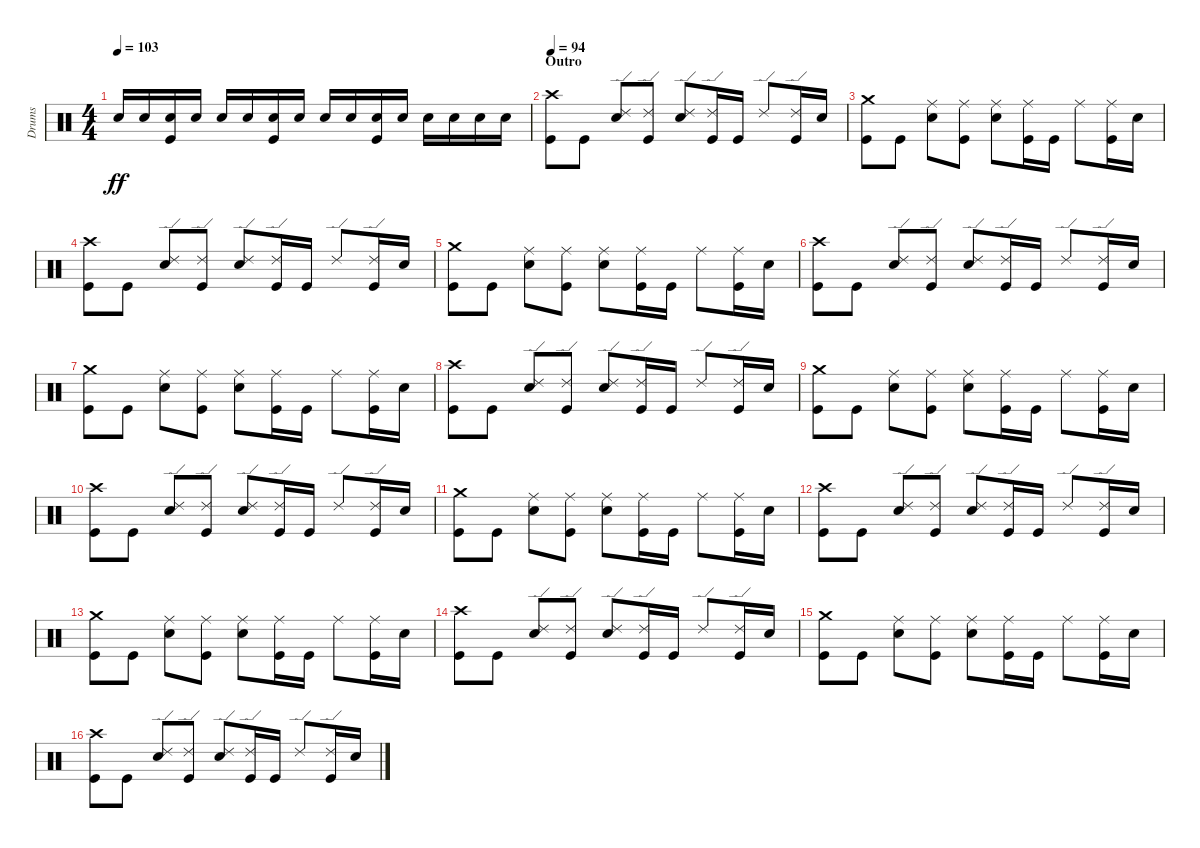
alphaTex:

\track ("Drums" "Drums") {instrument percussion}
\staff {score}
\articulation defaults
\ts (4 4)
\tempo 103
\clef neutral
\ks c "Electric Snare (hit)".16{dy ff} "Electric Snare (hit)".16
("Electric Snare (hit)" "Kick (hit)").16 "Electric Snare (hit)".16 "Electric Snare (hit)".16 "Electric Snare (hit)".16 ("Electric Snare (hit)" "Kick (hit)").16 "Electric Snare (hit)".16 "Electric Snare (hit)".16 "Electric Snare (hit)".16 ("Electric Snare (hit)" "Kick (hit)").16 "Electric Snare (hit)".16 "Electric Snare (hit)".16 "Electric Snare (hit)".16 "Electric Snare (hit)".16 "Electric Snare (hit)".16 |
\section ("" "Outro")
\tempo 94
("Crash high (hit)" "Kick (hit)").8 "Kick (hit)".8 ("Ride (edge) 2" "Electric Snare (hit)").8 ("Ride (edge) 2" "Kick (hit)").8 ("Ride (edge) 2" "Electric Snare (hit)").8 ("Ride (edge) 2" "Kick (hit)").16 "Kick (hit)".16 "Ride (edge) 2".8 ("Ride (edge) 2" "Kick (hit)").16 "Electric Snare (hit)".16 |
("Crash medium (hit)" "Kick (hit)").8 "Kick (hit)".8 ("Ride (middle)" "Electric Snare (hit)").8 ("Ride (middle)" "Kick (hit)").8 ("Ride (middle)" "Electric Snare (hit)").8 ("Ride (middle)" "Kick (hit)").16 "Kick (hit)".16 "Ride (middle)".8 ("Ride (middle)" "Kick (hit)").16 "Electric Snare (hit)".16 |
("Crash high (hit)" "Kick (hit)").8 "Kick (hit)".8 ("Ride (edge) 2" "Electric Snare (hit)").8 ("Ride (edge) 2" "Kick (hit)").8 ("Ride (edge) 2" "Electric Snare (hit)").8 ("Ride (edge) 2" "Kick (hit)").16 "Kick (hit)".16 "Ride (edge) 2".8 ("Ride (edge) 2" "Kick (hit)").16 "Electric Snare (hit)".16 |
("Crash medium (hit)" "Kick (hit)").8 "Kick (hit)".8 ("Ride (middle)" "Electric Snare (hit)").8 ("Ride (middle)" "Kick (hit)").8 ("Ride (middle)" "Electric Snare (hit)").8 ("Ride (middle)" "Kick (hit)").16 "Kick (hit)".16 "Ride (middle)".8 ("Ride (middle)" "Kick (hit)").16 "Electric Snare (hit)".16 |
("Crash high (hit)" "Kick (hit)").8 "Kick (hit)".8 ("Ride (edge) 2" "Electric Snare (hit)").8 ("Ride (edge) 2" "Kick (hit)").8 ("Ride (edge) 2" "Electric Snare (hit)").8 ("Ride (edge) 2" "Kick (hit)").16 "Kick (hit)".16 "Ride (edge) 2".8 ("Ride (edge) 2" "Kick (hit)").16 "Electric Snare (hit)".16 |
("Crash medium (hit)" "Kick (hit)").8 "Kick (hit)".8 ("Ride (middle)" "Electric Snare (hit)").8 ("Ride (middle)" "Kick (hit)").8 ("Ride (middle)" "Electric Snare (hit)").8 ("Ride (middle)" "Kick (hit)").16 "Kick (hit)".16 "Ride (middle)".8 ("Ride (middle)" "Kick (hit)").16 "Electric Snare (hit)".16 |
("Crash high (hit)" "Kick (hit)").8 "Kick (hit)".8 ("Ride (edge) 2" "Electric Snare (hit)").8 ("Ride (edge) 2" "Kick (hit)").8 ("Ride (edge) 2" "Electric Snare (hit)").8 ("Ride (edge) 2" "Kick (hit)").16 "Kick (hit)".16 "Ride (edge) 2".8 ("Ride (edge) 2" "Kick (hit)").16 "Electric Snare (hit)".16 |
("Crash medium (hit)" "Kick (hit)").8 "Kick (hit)".8 ("Ride (middle)" "Electric Snare (hit)").8 ("Ride (middle)" "Kick (hit)").8 ("Ride (middle)" "Electric Snare (hit)").8 ("Ride (middle)" "Kick (hit)").16 "Kick (hit)".16 "Ride (middle)".8 ("Ride (middle)" "Kick (hit)").16 "Electric Snare (hit)".16 |
("Crash high (hit)" "Kick (hit)").8 "Kick (hit)".8 ("Ride (edge) 2" "Electric Snare (hit)").8 ("Ride (edge) 2" "Kick (hit)").8 ("Ride (edge) 2" "Electric Snare (hit)").8 ("Ride (edge) 2" "Kick (hit)").16 "Kick (hit)".16 "Ride (edge) 2".8 ("Ride (edge) 2" "Kick (hit)").16 "Electric Snare (hit)".16 |
("Crash medium (hit)" "Kick (hit)").8 "Kick (hit)".8 ("Ride (middle)" "Electric Snare (hit)").8 ("Ride (middle)" "Kick (hit)").8 ("Ride (middle)" "Electric Snare (hit)").8 ("Ride (middle)" "Kick (hit)").16 "Kick (hit)".16 "Ride (middle)".8 ("Ride (middle)" "Kick (hit)").16 "Electric Snare (hit)".16 |
("Crash high (hit)" "Kick (hit)").8 "Kick (hit)".8 ("Ride (edge) 2" "Electric Snare (hit)").8 ("Ride (edge) 2" "Kick (hit)").8 ("Ride (edge) 2" "Electric Snare (hit)").8 ("Ride (edge) 2" "Kick (hit)").16 "Kick (hit)".16 "Ride (edge) 2".8 ("Ride (edge) 2" "Kick (hit)").16 "Electric Snare (hit)".16 |
("Crash medium (hit)" "Kick (hit)").8 "Kick (hit)".8 ("Ride (middle)" "Electric Snare (hit)").8 ("Ride (middle)" "Kick (hit)").8 ("Ride (middle)" "Electric Snare (hit)").8 ("Ride (middle)" "Kick (hit)").16 "Kick (hit)".16 "Ride (middle)".8 ("Ride (middle)" "Kick (hit)").16 "Electric Snare (hit)".16 |
("Crash high (hit)" "Kick (hit)").8 "Kick (hit)".8 ("Ride (edge) 2" "Electric Snare (hit)").8 ("Ride (edge) 2" "Kick (hit)").8 ("Ride (edge) 2" "Electric Snare (hit)").8 ("Ride (edge) 2" "Kick (hit)").16 "Kick (hit)".16 "Ride (edge) 2".8 ("Ride (edge) 2" "Kick (hit)").16 "Electric Snare (hit)".16 |
("Crash medium (hit)" "Kick (hit)").8 "Kick (hit)".8 ("Ride (middle)" "Electric Snare (hit)").8 ("Ride (middle)" "Kick (hit)").8 ("Ride (middle)" "Electric Snare (hit)").8 ("Ride (middle)" "Kick (hit)").16 "Kick (hit)".16 "Ride (middle)".8 ("Ride (middle)" "Kick (hit)").16 "Electric Snare (hit)".16 |
("Crash high (hit)" "Kick (hit)").8 "Kick (hit)".8 ("Ride (edge) 2" "Electric Snare (hit)").8 ("Ride (edge) 2" "Kick (hit)").8 ("Ride (edge) 2" "Electric Snare (hit)").8 ("Ride (edge) 2" "Kick (hit)").16 "Kick (hit)".16 "Ride (edge) 2".8 ("Ride (edge) 2" "Kick (hit)").16 "Electric Snare (hit)".16
